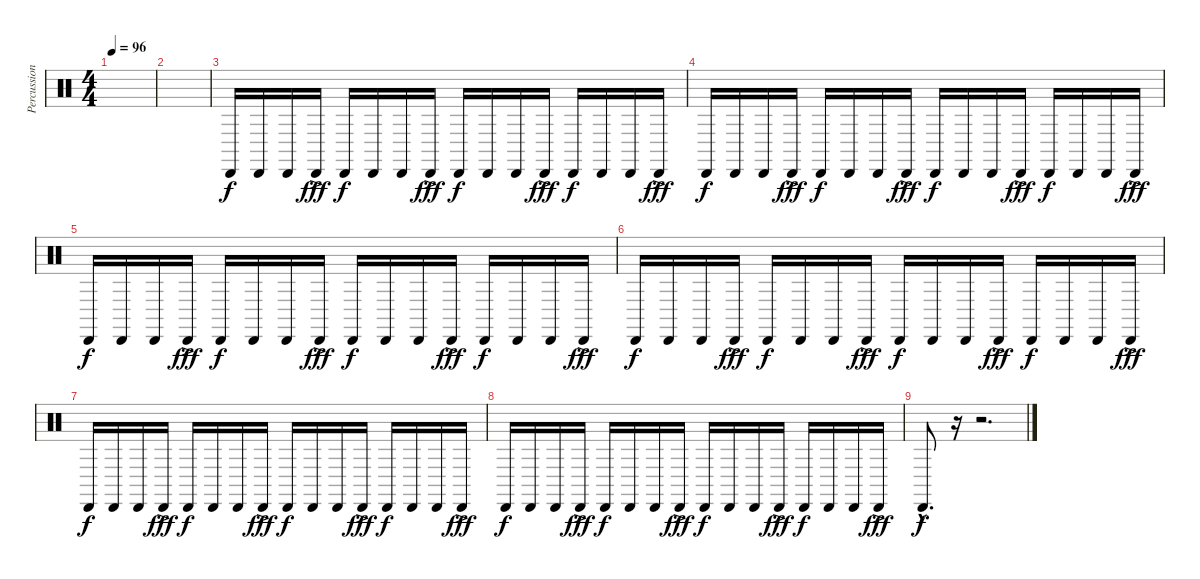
\track ("Percussions Basse" "Percussion") {instrument percussion}
\staff {score}
\articulation defaults
\ts (4 4)
\tempo 96
\clef neutral
\ks c
|
|
"Cabasa (hit)".16 "Cabasa (hit)".16 "Cabasa (hit)".16 "Cabasa (hit)"{ac}.16{dy fff} "Cabasa (hit)".16{dy f} "Cabasa (hit)".16 "Cabasa (hit)".16 "Cabasa (hit)"{ac}.16{dy fff} "Cabasa (hit)".16{dy f} "Cabasa (hit)".16 "Cabasa (hit)".16 "Cabasa (hit)"{ac}.16{dy fff} "Cabasa (hit)".16{dy f} "Cabasa (hit)".16 "Cabasa (hit)".16 "Cabasa (hit)"{ac}.16{dy fff} |
"Cabasa (hit)".16{dy f} "Cabasa (hit)".16 "Cabasa (hit)".16 "Cabasa (hit)"{ac}.16{dy fff} "Cabasa (hit)".16{dy f} "Cabasa (hit)".16 "Cabasa (hit)".16 "Cabasa (hit)"{ac}.16{dy fff} "Cabasa (hit)".16{dy f} "Cabasa (hit)".16 "Cabasa (hit)".16 "Cabasa (hit)"{ac}.16{dy fff} "Cabasa (hit)".16{dy f} "Cabasa (hit)".16 "Cabasa (hit)".16 "Cabasa (hit)"{ac}.16{dy fff} |
"Cabasa (hit)".16{dy f} "Cabasa (hit)".16 "Cabasa (hit)".16 "Cabasa (hit)"{ac}.16{dy fff} "Cabasa (hit)".16{dy f} "Cabasa (hit)".16 "Cabasa (hit)".16 "Cabasa (hit)"{ac}.16{dy fff} "Cabasa (hit)".16{dy f} "Cabasa (hit)".16 "Cabasa (hit)".16 "Cabasa (hit)"{ac}.16{dy fff} "Cabasa (hit)".16{dy f} "Cabasa (hit)".16 "Cabasa (hit)".16 "Cabasa (hit)"{ac}.16{dy fff} |
"Cabasa (hit)".16{dy f} "Cabasa (hit)".16 "Cabasa (hit)".16 "Cabasa (hit)"{ac}.16{dy fff} "Cabasa (hit)".16{dy f} "Cabasa (hit)".16 "Cabasa (hit)".16 "Cabasa (hit)"{ac}.16{dy fff} "Cabasa (hit)".16{dy f} "Cabasa (hit)".16 "Cabasa (hit)".16 "Cabasa (hit)"{ac}.16{dy fff} "Cabasa (hit)".16{dy f} "Cabasa (hit)".16 "Cabasa (hit)".16 "Cabasa (hit)"{ac}.16{dy fff} |
"Cabasa (hit)".16{dy f} "Cabasa (hit)".16 "Cabasa (hit)".16 "Cabasa (hit)"{ac}.16{dy fff} "Cabasa (hit)".16{dy f} "Cabasa (hit)".16 "Cabasa (hit)".16 "Cabasa (hit)"{ac}.16{dy fff} "Cabasa (hit)".16{dy f} "Cabasa (hit)".16 "Cabasa (hit)".16 "Cabasa (hit)"{ac}.16{dy fff} "Cabasa (hit)".16{dy f} "Cabasa (hit)".16 "Cabasa (hit)".16 "Cabasa (hit)"{ac}.16{dy fff} |
"Cabasa (hit)".16{dy f} "Cabasa (hit)".16 "Cabasa (hit)".16 "Cabasa (hit)"{ac}.16{dy fff} "Cabasa (hit)".16{dy f} "Cabasa (hit)".16 "Cabasa (hit)".16 "Cabasa (hit)"{ac}.16{dy fff} "Cabasa (hit)".16{dy f} "Cabasa (hit)".16 "Cabasa (hit)".16 "Cabasa (hit)"{ac}.16{dy fff} "Cabasa (hit)".16{dy f} "Cabasa (hit)".16 "Cabasa (hit)".16 "Cabasa (hit)"{ac}.16{dy fff} |
"Cabasa (hit)"{hac}.8{d dy f} r.16 r.2{d}
